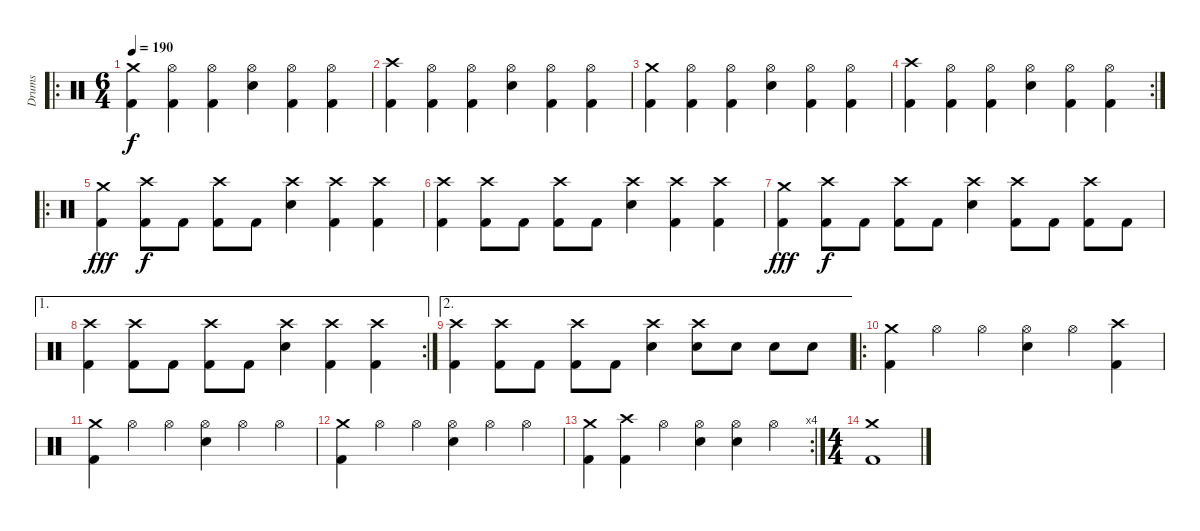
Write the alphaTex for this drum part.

\track ("Drums" "Drums") {instrument percussion}
\staff {score}
\articulation defaults
\ro
\ts (6 4)
\tempo 190
\clef neutral
\ks c
("Crash medium (hit)" "Kick (hit) 2").4{dy f} ("Hi-Hat (open)" "Kick (hit) 2").4 ("Hi-Hat (open)" "Kick (hit) 2").4 ("Hi-Hat (open)" "Electric Snare (hit)").4 ("Hi-Hat (open)" "Kick (hit) 2").4 ("Hi-Hat (open)" "Kick (hit) 2").4 |
("Crash high (hit)" "Kick (hit) 2").4 ("Hi-Hat (open)" "Kick (hit) 2").4 ("Hi-Hat (open)" "Kick (hit) 2").4 ("Hi-Hat (open)" "Electric Snare (hit)").4 ("Hi-Hat (open)" "Kick (hit) 2").4 ("Hi-Hat (open)" "Kick (hit) 2").4 |
("Crash medium (hit)" "Kick (hit) 2").4 ("Hi-Hat (open)" "Kick (hit) 2").4 ("Hi-Hat (open)" "Kick (hit) 2").4 ("Hi-Hat (open)" "Electric Snare (hit)").4 ("Hi-Hat (open)" "Kick (hit) 2").4 ("Hi-Hat (open)" "Kick (hit) 2").4 |
\rc 2
("Crash high (hit)" "Kick (hit) 2").4 ("Hi-Hat (open)" "Kick (hit) 2").4 ("Hi-Hat (open)" "Kick (hit) 2").4 ("Hi-Hat (open)" "Electric Snare (hit)").4 ("Hi-Hat (open)" "Kick (hit) 2").4 ("Hi-Hat (open)" "Kick (hit) 2").4 |
\ro
("Crash medium (hit)" "Kick (hit) 2").4{dy fff} ("Crash high (hit)" "Kick (hit) 2").8{dy f} "Kick (hit) 2".8 ("Crash high (hit)" "Kick (hit) 2").8 "Kick (hit) 2".8 ("Crash high (hit)" "Electric Snare (hit)").4 ("Crash high (hit)" "Kick (hit) 2").4 ("Crash high (hit)" "Kick (hit) 2").4 |
("Crash high (hit)" "Kick (hit) 2").4 ("Crash high (hit)" "Kick (hit) 2").8 "Kick (hit) 2".8 ("Crash high (hit)" "Kick (hit) 2").8 "Kick (hit) 2".8 ("Crash high (hit)" "Electric Snare (hit)").4 ("Crash high (hit)" "Kick (hit) 2").4 ("Crash high (hit)" "Kick (hit) 2").4 |
("Crash medium (hit)" "Kick (hit) 2").4{dy fff} ("Crash high (hit)" "Kick (hit) 2").8{dy f} "Kick (hit) 2".8 ("Crash high (hit)" "Kick (hit) 2").8 "Kick (hit) 2".8 ("Crash high (hit)" "Electric Snare (hit)").4 ("Crash high (hit)" "Kick (hit) 2").8 "Kick (hit) 2".8 ("Crash high (hit)" "Kick (hit) 2").8 "Kick (hit) 2".8 |
\ae 1
\rc 2
("Crash high (hit)" "Kick (hit) 2").4 ("Crash high (hit)" "Kick (hit) 2").8 "Kick (hit) 2".8 ("Crash high (hit)" "Kick (hit) 2").8 "Kick (hit) 2".8 ("Crash high (hit)" "Electric Snare (hit)").4 ("Crash high (hit)" "Kick (hit) 2").4 ("Crash high (hit)" "Kick (hit) 2").4 |
\ae 2
("Crash high (hit)" "Kick (hit) 2").4 ("Crash high (hit)" "Kick (hit) 2").8 "Kick (hit) 2".8 ("Crash high (hit)" "Kick (hit) 2").8 "Kick (hit) 2".8 ("Crash high (hit)" "Electric Snare (hit)").4 ("Crash high (hit)" "Electric Snare (hit)").8 "Electric Snare (hit)".8 "Electric Snare (hit)".8 "Electric Snare (hit)".8 |
\ro
("Crash medium (hit)" "Kick (hit) 2").4 "Hi-Hat (open)".4 "Hi-Hat (open)".4 ("Hi-Hat (open)" "Electric Snare (hit)").4 "Hi-Hat (open)".4 ("Crash high (hit)" "Kick (hit) 2").4 |
("Crash medium (hit)" "Kick (hit) 2").4 "Hi-Hat (open)".4 "Hi-Hat (open)".4 ("Hi-Hat (open)" "Electric Snare (hit)").4 "Hi-Hat (open)".4 "Hi-Hat (open)".4 |
("Crash medium (hit)" "Kick (hit) 2").4 "Hi-Hat (open)".4 "Hi-Hat (open)".4 ("Hi-Hat (open)" "Electric Snare (hit)").4 "Hi-Hat (open)".4 "Hi-Hat (open)".4 |
\rc 4
("Crash medium (hit)" "Kick (hit) 2").4 ("Crash high (hit)" "Kick (hit) 2").4 "Hi-Hat (open)".4 ("Hi-Hat (open)" "Electric Snare (hit)").4 ("Hi-Hat (open)" "Electric Snare (hit)").4 "Hi-Hat (open)".4 |
\ts (4 4)
("Crash medium (hit)" "Kick (hit) 2").1
